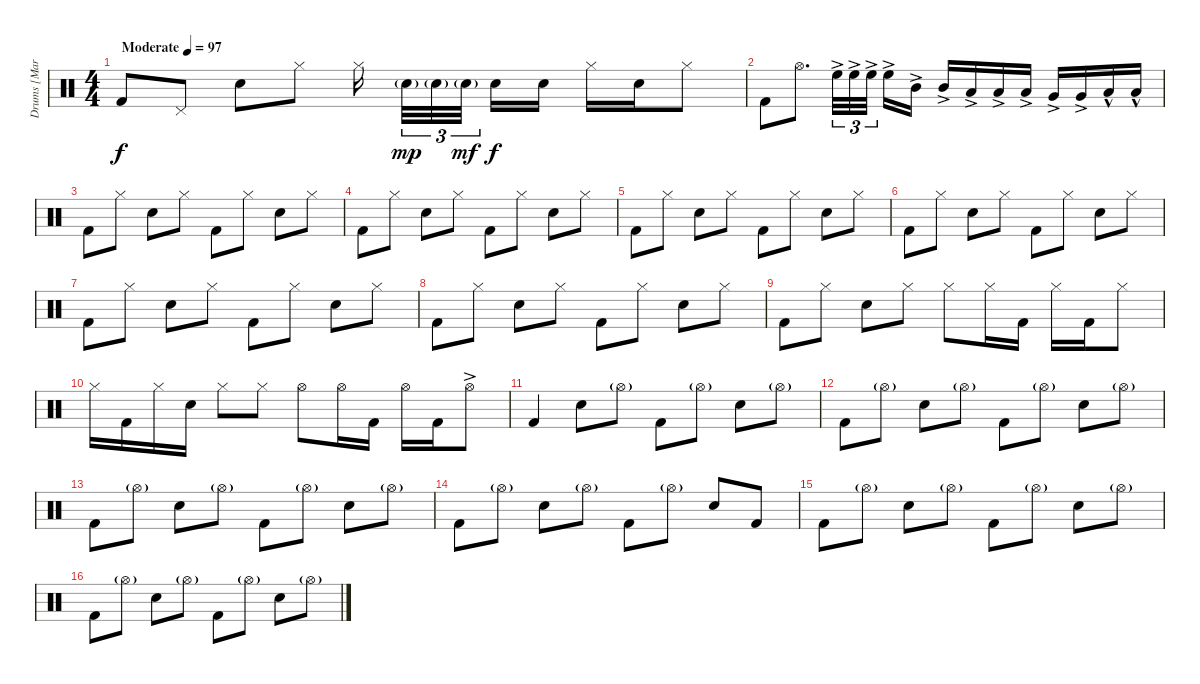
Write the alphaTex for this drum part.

\track ("Drums [Martin Lopez]" "Drums [Mar") {instrument percussion}
\staff {score}
\articulation defaults
\ts (4 4)
\tempo (97 "Moderate")
\clef neutral
\ks c "Kick (hit) 2".8{dy f} "Pedal Hi-Hat (hit)".8 "Snare (hit) 2".8 "Hi-Hat (closed)".8 "Hi-Hat (closed)".16 "Snare (hit) 2"{g}.32{tu (3 2) dy mp} "Snare (hit) 2"{g}.32{tu (3 2)} "Snare (hit) 2"{g}.32{tu (3 2) dy mf} "Snare (hit) 2".16{dy f} "Snare (hit) 2".16 "Hi-Hat (closed)".16 "Snare (hit) 2".16 "Hi-Hat (closed)".8
|
"Kick (hit) 2".8 "Hi-Hat (open)".8{d} "High Floor Tom (hit)"{ac}.32{tu (3 2)} "High Floor Tom (hit)"{ac}.32{tu (3 2)} "High Floor Tom (hit)"{ac}.32{tu (3 2)} "High Floor Tom (hit)"{ac}.16 "Mid Tom (hit)"{ac}.16 "Mid Tom (hit)"{ac}.16 "Low Tom (hit)"{ac}.16 "Low Tom (hit)"{ac}.16 "Low Tom (hit)"{ac}.16 "Very Low Tom (hit)"{ac}.16 "Very Low Tom (hit)"{ac}.16 "Low Floor Tom (hit)"{hac}.16 "Low Floor Tom (hit)"{hac}.16 |
"Kick (hit) 2".8 "Hi-Hat (closed)".8 "Snare (hit) 2".8 "Hi-Hat (closed)".8 "Kick (hit) 2".8 "Hi-Hat (closed)".8 "Snare (hit) 2".8 "Hi-Hat (closed)".8 |
"Kick (hit) 2".8 "Hi-Hat (closed)".8 "Snare (hit) 2".8 "Hi-Hat (closed)".8 "Kick (hit) 2".8 "Hi-Hat (closed)".8 "Snare (hit) 2".8 "Hi-Hat (closed)".8 |
"Kick (hit) 2".8 "Hi-Hat (closed)".8 "Snare (hit) 2".8 "Hi-Hat (closed)".8 "Kick (hit) 2".8 "Hi-Hat (closed)".8 "Snare (hit) 2".8 "Hi-Hat (closed)".8 |
"Kick (hit) 2".8 "Hi-Hat (closed)".8 "Snare (hit) 2".8 "Hi-Hat (closed)".8 "Kick (hit) 2".8 "Hi-Hat (closed)".8 "Snare (hit) 2".8 "Hi-Hat (closed)".8 |
"Kick (hit) 2".8 "Hi-Hat (closed)".8 "Snare (hit) 2".8 "Hi-Hat (closed)".8 "Kick (hit) 2".8 "Hi-Hat (closed)".8 "Snare (hit) 2".8 "Hi-Hat (closed)".8 |
"Kick (hit) 2".8 "Hi-Hat (closed)".8 "Snare (hit) 2".8 "Hi-Hat (closed)".8 "Kick (hit) 2".8 "Hi-Hat (closed)".8 "Snare (hit) 2".8 "Hi-Hat (closed)".8 |
"Kick (hit) 2".8 "Hi-Hat (closed)".8 "Snare (hit) 2".8 "Hi-Hat (closed)".8 "Hi-Hat (closed)".8 "Hi-Hat (closed)".16 "Kick (hit) 2".16 "Hi-Hat (closed)".16 "Kick (hit) 2".16 "Hi-Hat (closed)".8 |
"Hi-Hat (closed)".16 "Kick (hit) 2".16 "Hi-Hat (closed)".16 "Snare (hit) 2".16 "Hi-Hat (closed)".8 "Hi-Hat (closed)".8 "Hi-Hat (open)".8 "Hi-Hat (open)".16 "Kick (hit) 2".16 "Hi-Hat (open)".16 "Kick (hit) 2".16 "Hi-Hat (open)"{ac}.8 |
"Kick (hit) 2".4 "Snare (hit) 2".8 "Hi-Hat (open)"{g}.8 "Kick (hit) 2".8 "Hi-Hat (open)"{g}.8 "Snare (hit) 2".8 "Hi-Hat (open)"{g}.8 |
"Kick (hit) 2".8 "Hi-Hat (open)"{g}.8 "Snare (hit) 2".8 "Hi-Hat (open)"{g}.8 "Kick (hit) 2".8 "Hi-Hat (open)"{g}.8 "Snare (hit) 2".8 "Hi-Hat (open)"{g}.8 |
"Kick (hit) 2".8 "Hi-Hat (open)"{g}.8 "Snare (hit) 2".8 "Hi-Hat (open)"{g}.8 "Kick (hit) 2".8 "Hi-Hat (open)"{g}.8 "Snare (hit) 2".8 "Hi-Hat (open)"{g}.8 |
"Kick (hit) 2".8 "Hi-Hat (open)"{g}.8 "Snare (hit) 2".8 "Hi-Hat (open)"{g}.8 "Kick (hit) 2".8 "Hi-Hat (open)"{g}.8 "Snare (hit) 2".8 "Kick (hit) 2".8 |
"Kick (hit) 2".8 "Hi-Hat (open)"{g}.8 "Snare (hit) 2".8 "Hi-Hat (open)"{g}.8 "Kick (hit) 2".8 "Hi-Hat (open)"{g}.8 "Snare (hit) 2".8 "Hi-Hat (open)"{g}.8 |
"Kick (hit) 2".8 "Hi-Hat (open)"{g}.8 "Snare (hit) 2".8 "Hi-Hat (open)"{g}.8 "Kick (hit) 2".8 "Hi-Hat (open)"{g}.8 "Snare (hit) 2".8 "Hi-Hat (open)"{g}.8
